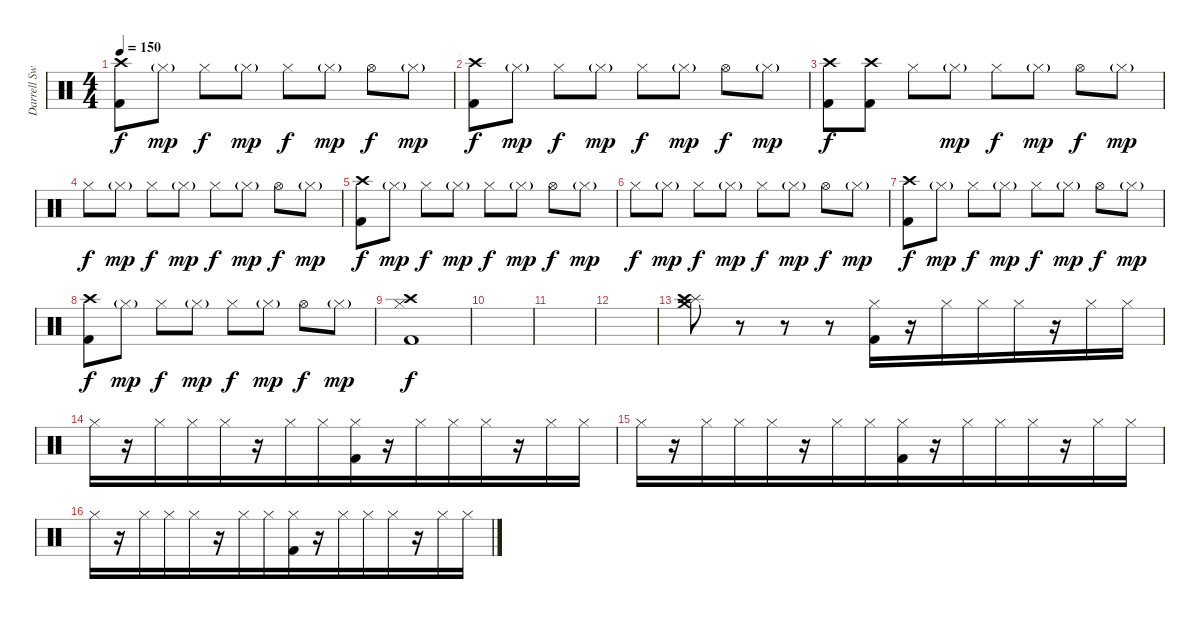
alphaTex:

\track ("Darrell Sweet (drums)" "Darrell Sw") {instrument percussion}
\staff {score}
\articulation defaults
\ts (4 4)
\tempo 150
\clef neutral
\ks c
("Kick (hit) 2" "Crash high (hit)").8{dy f} "Hi-Hat (closed)"{g}.8{dy mp} "Hi-Hat (closed)".8{dy f} "Hi-Hat (closed)"{g}.8{dy mp} "Hi-Hat (closed)".8{dy f} "Hi-Hat (closed)"{g}.8{dy mp} "Hi-Hat (open)".8{dy f} "Hi-Hat (closed)"{g}.8{dy mp} |
("Kick (hit) 2" "Crash high (hit)").8{dy f} "Hi-Hat (closed)"{g}.8{dy mp} "Hi-Hat (closed)".8{dy f} "Hi-Hat (closed)"{g}.8{dy mp} "Hi-Hat (closed)".8{dy f} "Hi-Hat (closed)"{g}.8{dy mp} "Hi-Hat (open)".8{dy f} "Hi-Hat (closed)"{g}.8{dy mp} |
("Kick (hit) 2" "Crash high (hit)").8{dy f} ("Kick (hit) 2" "Crash high (hit)").8 "Hi-Hat (closed)".8 "Hi-Hat (closed)"{g}.8{dy mp} "Hi-Hat (closed)".8{dy f} "Hi-Hat (closed)"{g}.8{dy mp} "Hi-Hat (open)".8{dy f} "Hi-Hat (closed)"{g}.8{dy mp} |
"Hi-Hat (closed)".8{dy f} "Hi-Hat (closed)"{g}.8{dy mp} "Hi-Hat (closed)".8{dy f} "Hi-Hat (closed)"{g}.8{dy mp} "Hi-Hat (closed)".8{dy f} "Hi-Hat (closed)"{g}.8{dy mp} "Hi-Hat (open)".8{dy f} "Hi-Hat (closed)"{g}.8{dy mp} |
("Kick (hit) 2" "Crash high (hit)").8{dy f} "Hi-Hat (closed)"{g}.8{dy mp} "Hi-Hat (closed)".8{dy f} "Hi-Hat (closed)"{g}.8{dy mp} "Hi-Hat (closed)".8{dy f} "Hi-Hat (closed)"{g}.8{dy mp} "Hi-Hat (open)".8{dy f} "Hi-Hat (closed)"{g}.8{dy mp} |
"Hi-Hat (closed)".8{dy f} "Hi-Hat (closed)"{g}.8{dy mp} "Hi-Hat (closed)".8{dy f} "Hi-Hat (closed)"{g}.8{dy mp} "Hi-Hat (closed)".8{dy f} "Hi-Hat (closed)"{g}.8{dy mp} "Hi-Hat (open)".8{dy f} "Hi-Hat (closed)"{g}.8{dy mp} |
("Kick (hit) 2" "Crash high (hit)").8{dy f} "Hi-Hat (closed)"{g}.8{dy mp} "Hi-Hat (closed)".8{dy f} "Hi-Hat (closed)"{g}.8{dy mp} "Hi-Hat (closed)".8{dy f} "Hi-Hat (closed)"{g}.8{dy mp} "Hi-Hat (open)".8{dy f} "Hi-Hat (closed)"{g}.8{dy mp} |
("Kick (hit) 2" "Crash high (hit)").8{dy f} "Hi-Hat (closed)"{g}.8{dy mp} "Hi-Hat (closed)".8{dy f} "Hi-Hat (closed)"{g}.8{dy mp} "Hi-Hat (closed)".8{dy f} "Hi-Hat (closed)"{g}.8{dy mp} "Hi-Hat (open)".8{dy f} "Hi-Hat (closed)"{g}.8{dy mp} |
("Kick (hit) 2" "Crash high (hit)" "Hi-Hat (closed)").1{dy f} |
|
|
|
("Crash medium (hit)" "Splash (hit)" "Crash high (hit)").8 r.8 r.8 r.8 ("Hi-Hat (closed)" "Kick (hit) 2").16 r.16 "Hi-Hat (closed)".16 "Hi-Hat (closed)".16{beam merge} "Hi-Hat (closed)".16 r.16 "Hi-Hat (closed)".16 "Hi-Hat (closed)".16 |
"Hi-Hat (closed)".16 r.16 "Hi-Hat (closed)".16 "Hi-Hat (closed)".16{beam merge} "Hi-Hat (closed)".16 r.16 "Hi-Hat (closed)".16 "Hi-Hat (closed)".16{beam merge} ("Hi-Hat (closed)" "Kick (hit) 2").16 r.16 "Hi-Hat (closed)".16 "Hi-Hat (closed)".16{beam merge} "Hi-Hat (closed)".16 r.16 "Hi-Hat (closed)".16 "Hi-Hat (closed)".16 |
"Hi-Hat (closed)".16 r.16 "Hi-Hat (closed)".16 "Hi-Hat (closed)".16{beam merge} "Hi-Hat (closed)".16 r.16 "Hi-Hat (closed)".16 "Hi-Hat (closed)".16{beam merge} ("Hi-Hat (closed)" "Kick (hit) 2").16 r.16 "Hi-Hat (closed)".16 "Hi-Hat (closed)".16{beam merge} "Hi-Hat (closed)".16 r.16 "Hi-Hat (closed)".16 "Hi-Hat (closed)".16 |
"Hi-Hat (closed)".16 r.16 "Hi-Hat (closed)".16 "Hi-Hat (closed)".16{beam merge} "Hi-Hat (closed)".16 r.16 "Hi-Hat (closed)".16 "Hi-Hat (closed)".16{beam merge} ("Hi-Hat (closed)" "Kick (hit) 2").16 r.16 "Hi-Hat (closed)".16 "Hi-Hat (closed)".16{beam merge} "Hi-Hat (closed)".16 r.16 "Hi-Hat (closed)".16 "Hi-Hat (closed)".16
